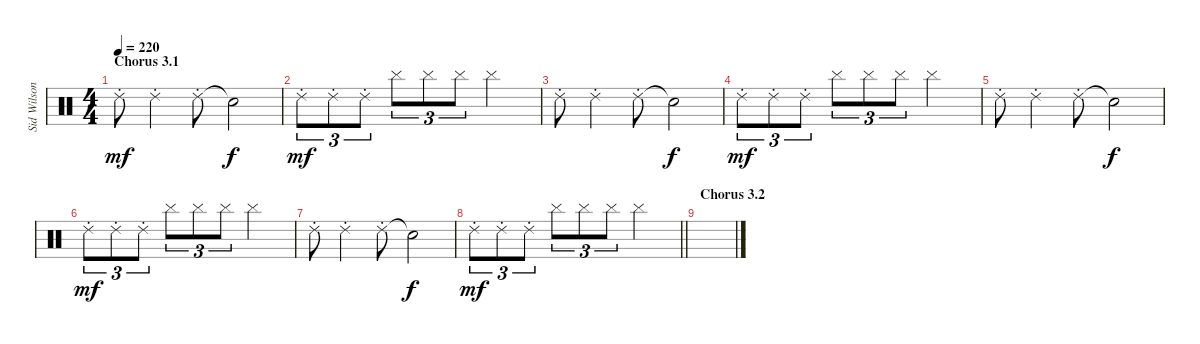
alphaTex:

\track ("Sid Wilson" "Sid Wilson") {instrument percussion}
\staff {score}
\articulation defaults
\ts (4 4)
\section ("" "Chorus 3.1")
\tempo 220
\clef neutral
\ks c "Ride (choke) 2".8{dy mf} "Ride (choke) 2".4 "Ride (choke) 2".8 "Snare (hit)"{t}.2{dy f}
|
"Ride (choke) 2".8{tu (3 2) dy mf} "Ride (choke) 2".8{tu (3 2)} "Ride (choke) 2".8{tu (3 2)} "Cymbal (hit)".8{tu (3 2)} "Cymbal (hit)".8{tu (3 2)} "Cymbal (hit)".8{tu (3 2)} "Cymbal (hit)".2 |
"Ride (choke) 2".8 "Ride (choke) 2".4 "Ride (choke) 2".8 "Snare (hit)"{t}.2{dy f} |
"Ride (choke) 2".8{tu (3 2) dy mf} "Ride (choke) 2".8{tu (3 2)} "Ride (choke) 2".8{tu (3 2)} "Cymbal (hit)".8{tu (3 2)} "Cymbal (hit)".8{tu (3 2)} "Cymbal (hit)".8{tu (3 2)} "Cymbal (hit)".2 |
"Ride (choke) 2".8 "Ride (choke) 2".4 "Ride (choke) 2".8 "Snare (hit)"{t}.2{dy f} |
"Ride (choke) 2".8{tu (3 2) dy mf} "Ride (choke) 2".8{tu (3 2)} "Ride (choke) 2".8{tu (3 2)} "Cymbal (hit)".8{tu (3 2)} "Cymbal (hit)".8{tu (3 2)} "Cymbal (hit)".8{tu (3 2)} "Cymbal (hit)".2 |
"Ride (choke) 2".8 "Ride (choke) 2".4 "Ride (choke) 2".8 "Snare (hit)"{t}.2{dy f} |
\barLineRight lightlight "Ride (choke) 2".8{tu (3 2) dy mf} "Ride (choke) 2".8{tu (3 2)} "Ride (choke) 2".8{tu (3 2)} "Cymbal (hit)".8{tu (3 2)} "Cymbal (hit)".8{tu (3 2)} "Cymbal (hit)".8{tu (3 2)} "Cymbal (hit)".2
|
\section ("" "Chorus 3.2")
